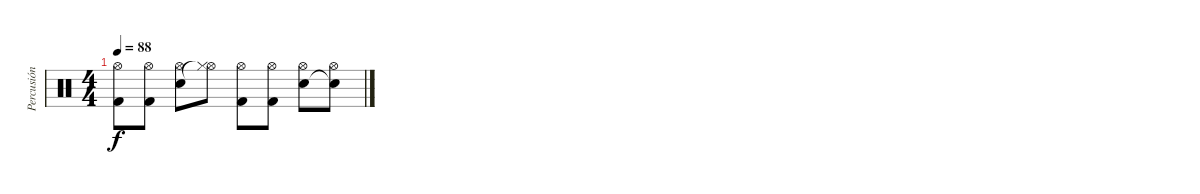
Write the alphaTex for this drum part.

\track ("Percusión" "Percusión") {instrument percussion}
\staff {score}
\articulation defaults
\ts (4 4)
\tempo 88
\clef neutral
\ks c
("Hi-Hat (open)" "Kick (hit) 2").8{dy f} ("Hi-Hat (open)" "Kick (hit) 2").8 ("Hi-Hat (open)" "Snare (hit) 2").8 ("Hi-Hat (open)" "Hi-Hat (closed)"{t}).8 ("Hi-Hat (open)" "Kick (hit) 2").8 ("Hi-Hat (open)" "Kick (hit) 2").8 ("Hi-Hat (open)" "Snare (hit) 2").8 ("Hi-Hat (open)" "Snare (hit)"{t}).8
